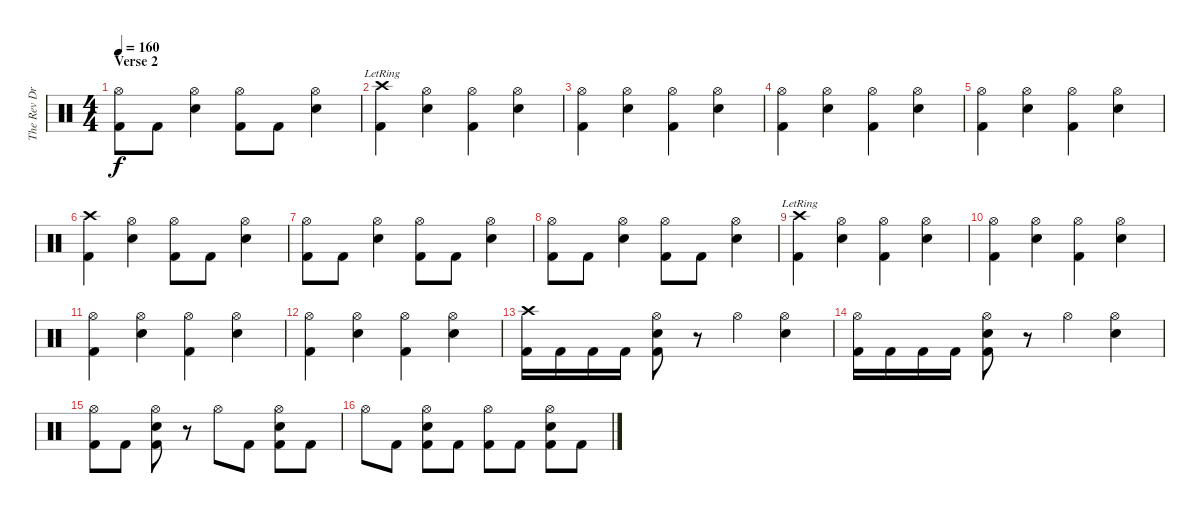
\track ("The Rev Drum" "The Rev Dr") {instrument percussion}
\staff {score}
\articulation defaults
\ts (4 4)
\section ("" "Verse 2")
\tempo 160
\clef neutral
\ks c
("Hi-Hat (open)" "Kick (hit) 2").8{dy f} "Kick (hit) 2".8 ("Hi-Hat (open)" "Electric Snare (hit)").4 ("Hi-Hat (open)" "Kick (hit) 2").8 "Kick (hit) 2".8 ("Hi-Hat (open)" "Electric Snare (hit)").4 |
("Crash high (hit)" "Kick (hit) 2"{lr}).4 ("Hi-Hat (open)" "Electric Snare (hit)").4 ("Hi-Hat (open)" "Kick (hit) 2").4 ("Hi-Hat (open)" "Electric Snare (hit)").4 |
("Hi-Hat (open)" "Kick (hit) 2").4 ("Hi-Hat (open)" "Electric Snare (hit)").4 ("Hi-Hat (open)" "Kick (hit) 2").4 ("Hi-Hat (open)" "Electric Snare (hit)").4 |
("Hi-Hat (open)" "Kick (hit) 2").4 ("Hi-Hat (open)" "Electric Snare (hit)").4 ("Hi-Hat (open)" "Kick (hit) 2").4 ("Hi-Hat (open)" "Electric Snare (hit)").4 |
("Hi-Hat (open)" "Kick (hit) 2").4 ("Hi-Hat (open)" "Electric Snare (hit)").4 ("Hi-Hat (open)" "Kick (hit) 2").4 ("Hi-Hat (open)" "Electric Snare (hit)").4 |
("Crash high (hit)" "Kick (hit) 2").4 ("Hi-Hat (open)" "Electric Snare (hit)").4 ("Hi-Hat (open)" "Kick (hit) 2").8 "Kick (hit) 2".8 ("Hi-Hat (open)" "Electric Snare (hit)").4 |
("Hi-Hat (open)" "Kick (hit) 2").8 "Kick (hit) 2".8 ("Hi-Hat (open)" "Electric Snare (hit)").4 ("Hi-Hat (open)" "Kick (hit) 2").8 "Kick (hit) 2".8 ("Hi-Hat (open)" "Electric Snare (hit)").4 |
("Hi-Hat (open)" "Kick (hit) 2").8 "Kick (hit) 2".8 ("Hi-Hat (open)" "Electric Snare (hit)").4 ("Hi-Hat (open)" "Kick (hit) 2").8 "Kick (hit) 2".8 ("Hi-Hat (open)" "Electric Snare (hit)").4 |
("Crash high (hit)" "Kick (hit) 2"{lr}).4 ("Hi-Hat (open)" "Electric Snare (hit)").4 ("Hi-Hat (open)" "Kick (hit) 2").4 ("Hi-Hat (open)" "Electric Snare (hit)").4 |
("Hi-Hat (open)" "Kick (hit) 2").4 ("Hi-Hat (open)" "Electric Snare (hit)").4 ("Hi-Hat (open)" "Kick (hit) 2").4 ("Hi-Hat (open)" "Electric Snare (hit)").4 |
("Hi-Hat (open)" "Kick (hit) 2").4 ("Hi-Hat (open)" "Electric Snare (hit)").4 ("Hi-Hat (open)" "Kick (hit) 2").4 ("Hi-Hat (open)" "Electric Snare (hit)").4 |
("Hi-Hat (open)" "Kick (hit) 2").4 ("Hi-Hat (open)" "Electric Snare (hit)").4 ("Hi-Hat (open)" "Kick (hit) 2").4 ("Hi-Hat (open)" "Electric Snare (hit)").4 |
("Crash high (hit)" "Kick (hit) 2").16 "Kick (hit) 2".16 "Kick (hit) 2".16 "Kick (hit) 2".16 ("Hi-Hat (open)" "Electric Snare (hit)" "Kick (hit) 2").8 r.8 "Hi-Hat (open)".4 ("Hi-Hat (open)" "Electric Snare (hit)").4 |
("Hi-Hat (open)" "Kick (hit) 2").16 "Kick (hit) 2".16 "Kick (hit) 2".16 "Kick (hit) 2".16 ("Hi-Hat (open)" "Electric Snare (hit)" "Kick (hit) 2").8 r.8 "Hi-Hat (open)".4 ("Hi-Hat (open)" "Electric Snare (hit)").4 |
("Hi-Hat (open)" "Kick (hit) 2").8 "Kick (hit) 2".8 ("Hi-Hat (open)" "Electric Snare (hit)" "Kick (hit) 2").8 r.8 "Hi-Hat (open)".8 "Kick (hit) 2".8 ("Hi-Hat (open)" "Electric Snare (hit)" "Kick (hit) 2").8 "Kick (hit) 2".8 |
"Hi-Hat (open)".8 "Kick (hit) 2".8 ("Hi-Hat (open)" "Electric Snare (hit)" "Kick (hit) 2").8 "Kick (hit) 2".8 ("Hi-Hat (open)" "Kick (hit) 2").8 "Kick (hit) 2".8 ("Hi-Hat (open)" "Electric Snare (hit)" "Kick (hit) 2").8 "Kick (hit) 2".8
